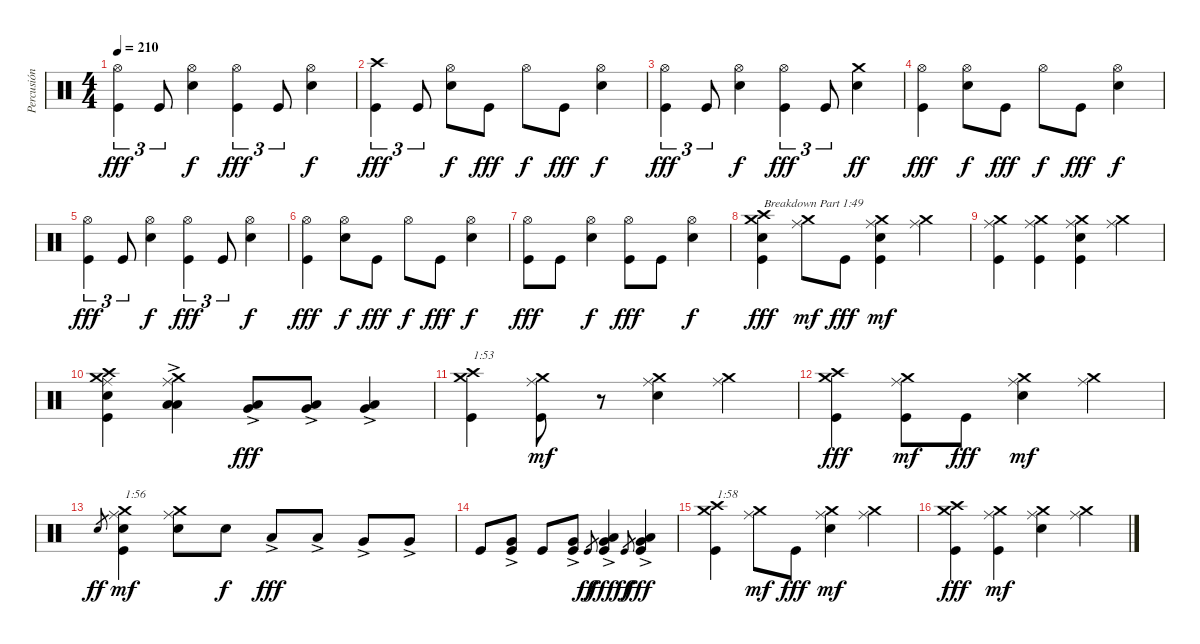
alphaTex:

\track ("Percusión" "Percusión") {instrument percussion}
\staff {score}
\articulation defaults
\ts (4 4)
\tempo 210
\clef neutral
\ks c
("Kick (hit)" "Hi-Hat (open)").4{tu (3 2) dy fff} "Kick (hit)".8{tu (3 2)} ("Electric Snare (hit)" "Hi-Hat (open)").4{dy f} ("Kick (hit)" "Hi-Hat (open)").4{tu (3 2) dy fff} "Kick (hit)".8{tu (3 2)} ("Electric Snare (hit)" "Hi-Hat (open)").4{dy f} |
("Kick (hit)" "Crash high (hit)").4{tu (3 2) dy fff} "Kick (hit)".8{tu (3 2)} ("Electric Snare (hit)" "Hi-Hat (open)").8{dy f} "Kick (hit)".8{dy fff} "Hi-Hat (open)".8{dy f} "Kick (hit)".8{dy fff} ("Electric Snare (hit)" "Hi-Hat (open)").4{dy f} |
("Kick (hit)" "Hi-Hat (open)").4{tu (3 2) dy fff} "Kick (hit)".8{tu (3 2)} ("Electric Snare (hit)" "Hi-Hat (open)").4{dy f} ("Kick (hit)" "Hi-Hat (open)").4{tu (3 2) dy fff} "Kick (hit)".8{tu (3 2)} ("Electric Snare (hit)" "Crash medium (hit)").4{dy ff} |
("Kick (hit)" "Hi-Hat (open)").4{dy fff} ("Electric Snare (hit)" "Hi-Hat (open)").8{dy f} "Kick (hit)".8{dy fff} "Hi-Hat (open)".8{dy f} "Kick (hit)".8{dy fff} ("Electric Snare (hit)" "Hi-Hat (open)").4{dy f} |
("Kick (hit)" "Hi-Hat (open)").4{tu (3 2) dy fff} "Kick (hit)".8{tu (3 2)} ("Electric Snare (hit)" "Hi-Hat (open)").4{dy f} ("Kick (hit)" "Hi-Hat (open)").4{tu (3 2) dy fff} "Kick (hit)".8{tu (3 2)} ("Electric Snare (hit)" "Hi-Hat (open)").4{dy f} |
("Kick (hit)" "Hi-Hat (open)").4{dy fff} ("Electric Snare (hit)" "Hi-Hat (open)").8{dy f} "Kick (hit)".8{dy fff} "Hi-Hat (open)".8{dy f} "Kick (hit)".8{dy fff} ("Electric Snare (hit)" "Hi-Hat (open)").4{dy f} |
("Kick (hit)" "Hi-Hat (open)").8{dy fff} "Kick (hit)".8 ("Electric Snare (hit)" "Hi-Hat (open)").4{dy f} ("Kick (hit)" "Hi-Hat (open)").8{dy fff} "Kick (hit)".8 ("Electric Snare (hit)" "Hi-Hat (open)").4{dy f} |
("Kick (hit)" "Electric Snare (hit)" "Crash medium (hit)" "Crash high (hit)").4{txt "Breakdown Part 1:49" dy fff} ("Ride (middle)" "Crash medium (hit)").8{dy mf} "Kick (hit)".8{dy fff} ("Kick (hit)" "Electric Snare (hit)" "Ride (middle)" "Crash medium (hit)").4{dy mf} ("Ride (middle)" "Crash medium (hit)").4 |
("Kick (hit)" "Ride (middle)" "Crash medium (hit)").4 ("Kick (hit)" "Ride (middle)" "Crash medium (hit)").4 ("Kick (hit)" "Electric Snare (hit)" "Ride (middle)" "Crash medium (hit)").4 ("Ride (middle)" "Crash medium (hit)").4 |
("Kick (hit)" "Electric Snare (hit)" "Ride (middle)" "Crash medium (hit)" "Crash high (hit)").4 ("Low Tom (hit)"{ac} "Low Floor Tom (hit)"{ac} "Ride (middle)" "Crash medium (hit)").4 ("Low Tom (hit)"{ac} "Very Low Tom (hit)"{ac}).8{dy fff} ("Low Tom (hit)"{ac} "Very Low Tom (hit)"{ac}).8 ("Low Tom (hit)"{ac} "Very Low Tom (hit)"{ac}).4 |
("Kick (hit)" "Crash medium (hit)" "Crash high (hit)").4{txt "1:53"} ("Kick (hit)" "Ride (middle)" "Crash medium (hit)").8{dy mf} r.8 ("Electric Snare (hit)" "Ride (middle)" "Crash medium (hit)").4 ("Ride (middle)" "Crash medium (hit)").4 |
("Kick (hit)" "Crash medium (hit)" "Crash high (hit)").4{dy fff} ("Kick (hit)" "Ride (middle)" "Crash medium (hit)").8{dy mf} "Kick (hit)".8{dy fff} ("Electric Snare (hit)" "Ride (middle)" "Crash medium (hit)").4{dy mf} ("Ride (middle)" "Crash medium (hit)").4 |
"Electric Snare (hit)".8{gr dy ff} ("Kick (hit)" "Electric Snare (hit)" "Ride (middle)" "Crash medium (hit)").4{txt "1:56" dy mf} ("Electric Snare (hit)" "Ride (middle)" "Crash medium (hit)").8 "Electric Snare (hit)".8{dy f} "Low Tom (hit)"{ac}.8{dy fff} "Low Tom (hit)"{ac}.8 "Very Low Tom (hit)"{ac}.8 "Very Low Tom (hit)"{ac}.8 |
"Kick (hit)".8 ("Kick (hit)" "Very Low Tom (hit)"{ac}).8 "Kick (hit)".8 ("Kick (hit)" "Very Low Tom (hit)"{ac}).8 "Kick (hit)".8{gr dy ff} ("Kick (hit)" "Very Low Tom (hit)"{ac} "Low Tom (hit)"{ac}).4{dy fff} "Kick (hit)".8{gr dy ff} ("Kick (hit)" "Very Low Tom (hit)"{ac} "Low Tom (hit)"{ac}).4{dy fff} |
("Kick (hit)" "Crash medium (hit)" "Crash high (hit)").4{txt "1:58"} ("Ride (middle)" "Crash medium (hit)").8{dy mf} "Kick (hit)".8{dy fff} ("Electric Snare (hit)" "Ride (middle)" "Crash medium (hit)").4{dy mf} ("Ride (middle)" "Crash medium (hit)").4 |
("Kick (hit)" "Crash medium (hit)" "Crash high (hit)").4{dy fff} ("Kick (hit)" "Ride (middle)" "Crash medium (hit)").4{dy mf} ("Electric Snare (hit)" "Ride (middle)" "Crash medium (hit)").4 ("Ride (middle)" "Crash medium (hit)").4
